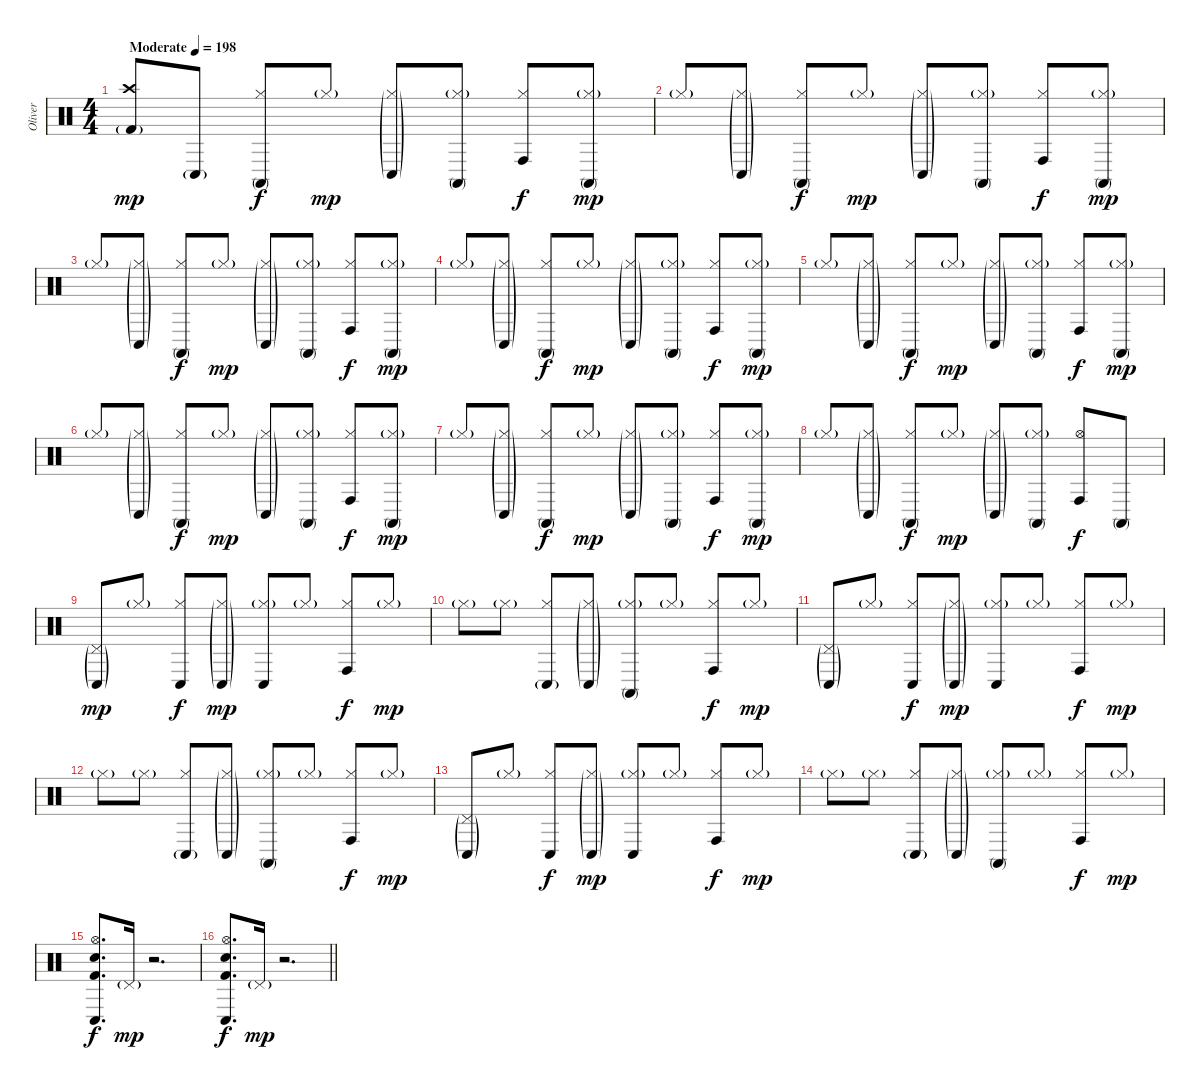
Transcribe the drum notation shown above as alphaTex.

\track ("Oliver" "Oliver") {instrument percussion}
\staff {score}
\articulation defaults
\ts (4 4)
\tempo (198 "Moderate")
\clef neutral
\ks c
("Crash high (hit)" "Kick (hit) 2"{g}).8{dy mp} "Conga low (hit)"{g}.8 ("Hi-Hat (closed)" "Conga high (mute)").8{dy f} "Hi-Hat (closed)"{g}.8{dy mp} ("Hi-Hat (closed)"{g} "Conga low (hit)"{g}).8 ("Hi-Hat (closed)"{g} "Conga high (mute)").8 ("Hi-Hat (closed)" "Conga high (hit)").8{dy f} ("Hi-Hat (closed)"{g} "Conga high (mute)").8{dy mp} |
"Hi-Hat (closed)"{g}.8 ("Hi-Hat (closed)"{g} "Conga low (hit)"{g}).8 ("Hi-Hat (closed)" "Conga high (mute)").8{dy f} "Hi-Hat (closed)"{g}.8{dy mp} ("Hi-Hat (closed)"{g} "Conga low (hit)"{g}).8 ("Hi-Hat (closed)"{g} "Conga high (mute)").8 ("Hi-Hat (closed)" "Conga high (hit)").8{dy f} ("Hi-Hat (closed)"{g} "Conga high (mute)").8{dy mp} |
"Hi-Hat (closed)"{g}.8 ("Hi-Hat (closed)"{g} "Conga low (hit)"{g}).8 ("Hi-Hat (closed)" "Conga high (mute)").8{dy f} "Hi-Hat (closed)"{g}.8{dy mp} ("Hi-Hat (closed)"{g} "Conga low (hit)"{g}).8 ("Hi-Hat (closed)"{g} "Conga high (mute)").8 ("Hi-Hat (closed)" "Conga high (hit)").8{dy f} ("Hi-Hat (closed)"{g} "Conga high (mute)").8{dy mp} |
"Hi-Hat (closed)"{g}.8 ("Hi-Hat (closed)"{g} "Conga low (hit)"{g}).8 ("Hi-Hat (closed)" "Conga high (mute)").8{dy f} "Hi-Hat (closed)"{g}.8{dy mp} ("Hi-Hat (closed)"{g} "Conga low (hit)"{g}).8 ("Hi-Hat (closed)"{g} "Conga high (mute)").8 ("Hi-Hat (closed)" "Conga high (hit)").8{dy f} ("Hi-Hat (closed)"{g} "Conga high (mute)").8{dy mp} |
"Hi-Hat (closed)"{g}.8 ("Hi-Hat (closed)"{g} "Conga low (hit)"{g}).8 ("Hi-Hat (closed)" "Conga high (mute)").8{dy f} "Hi-Hat (closed)"{g}.8{dy mp} ("Hi-Hat (closed)"{g} "Conga low (hit)"{g}).8 ("Hi-Hat (closed)"{g} "Conga high (mute)").8 ("Hi-Hat (closed)" "Conga high (hit)").8{dy f} ("Hi-Hat (closed)"{g} "Conga high (mute)").8{dy mp} |
"Hi-Hat (closed)"{g}.8 ("Hi-Hat (closed)"{g} "Conga low (hit)"{g}).8 ("Hi-Hat (closed)" "Conga high (mute)").8{dy f} "Hi-Hat (closed)"{g}.8{dy mp} ("Hi-Hat (closed)"{g} "Conga low (hit)"{g}).8 ("Hi-Hat (closed)"{g} "Conga high (mute)").8 ("Hi-Hat (closed)" "Conga high (hit)").8{dy f} ("Hi-Hat (closed)"{g} "Conga high (mute)").8{dy mp} |
"Hi-Hat (closed)"{g}.8 ("Hi-Hat (closed)"{g} "Conga low (hit)"{g}).8 ("Hi-Hat (closed)" "Conga high (mute)").8{dy f} "Hi-Hat (closed)"{g}.8{dy mp} ("Hi-Hat (closed)"{g} "Conga low (hit)"{g}).8 ("Hi-Hat (closed)"{g} "Conga high (mute)").8 ("Hi-Hat (closed)" "Conga high (hit)").8{dy f} ("Hi-Hat (closed)"{g} "Conga high (mute)").8{dy mp} |
"Hi-Hat (closed)"{g}.8 ("Hi-Hat (closed)"{g} "Conga low (hit)"{g}).8 ("Hi-Hat (closed)" "Conga high (mute)").8{dy f} "Hi-Hat (closed)"{g}.8{dy mp} ("Hi-Hat (closed)"{g} "Conga low (hit)"{g}).8 ("Hi-Hat (closed)"{g} "Conga high (mute)").8 ("Hi-Hat (open)" "Conga high (hit)").8{dy f} "Conga high (mute)".8 |
("Pedal Hi-Hat (hit)"{g} "Conga low (hit)"{g}).8{dy mp} "Hi-Hat (closed)"{g}.8 ("Hi-Hat (closed)" "Conga low (hit)").8{dy f} ("Hi-Hat (closed)"{g} "Conga low (hit)"{g}).8{dy mp} ("Hi-Hat (closed)"{g} "Conga low (hit)").8 "Hi-Hat (closed)"{g}.8 ("Hi-Hat (closed)" "Conga high (hit)").8{dy f} "Hi-Hat (closed)"{g}.8{dy mp} |
"Hi-Hat (closed)"{g}.8 "Hi-Hat (closed)"{g}.8 ("Hi-Hat (closed)" "Conga low (hit)"{g}).8 ("Hi-Hat (closed)"{g} "Conga low (hit)"{g}).8 ("Hi-Hat (closed)"{g} "Conga high (mute)").8 "Hi-Hat (closed)"{g}.8 ("Hi-Hat (closed)" "Conga high (hit)").8{dy f} "Hi-Hat (closed)"{g}.8{dy mp} |
("Pedal Hi-Hat (hit)"{g} "Conga low (hit)"{g}).8 "Hi-Hat (closed)"{g}.8 ("Hi-Hat (closed)" "Conga low (hit)").8{dy f} ("Hi-Hat (closed)"{g} "Conga low (hit)"{g}).8{dy mp} ("Hi-Hat (closed)"{g} "Conga low (hit)").8 "Hi-Hat (closed)"{g}.8 ("Hi-Hat (closed)" "Conga high (hit)").8{dy f} "Hi-Hat (closed)"{g}.8{dy mp} |
"Hi-Hat (closed)"{g}.8 "Hi-Hat (closed)"{g}.8 ("Hi-Hat (closed)" "Conga low (hit)"{g}).8 ("Hi-Hat (closed)"{g} "Conga low (hit)"{g}).8 ("Hi-Hat (closed)"{g} "Conga high (mute)").8 "Hi-Hat (closed)"{g}.8 ("Hi-Hat (closed)" "Conga high (hit)").8{dy f} "Hi-Hat (closed)"{g}.8{dy mp} |
("Pedal Hi-Hat (hit)"{g} "Conga low (hit)"{g}).8 "Hi-Hat (closed)"{g}.8 ("Hi-Hat (closed)" "Conga low (hit)").8{dy f} ("Hi-Hat (closed)"{g} "Conga low (hit)"{g}).8{dy mp} ("Hi-Hat (closed)"{g} "Conga low (hit)").8 "Hi-Hat (closed)"{g}.8 ("Hi-Hat (closed)" "Conga high (hit)").8{dy f} "Hi-Hat (closed)"{g}.8{dy mp} |
"Hi-Hat (closed)"{g}.8 "Hi-Hat (closed)"{g}.8 ("Hi-Hat (closed)" "Conga low (hit)"{g}).8 ("Hi-Hat (closed)"{g} "Conga low (hit)"{g}).8 ("Hi-Hat (closed)"{g} "Conga high (mute)").8 "Hi-Hat (closed)"{g}.8 ("Hi-Hat (closed)" "Conga high (hit)").8{dy f} "Hi-Hat (closed)"{g}.8{dy mp} |
("Hi-Hat (open)" "Conga low (hit)" "Electric Snare (hit)" "Kick (hit) 2").8{d dy f} "Pedal Hi-Hat (hit)"{g}.16{dy mp} r.2{d} |
\barLineRight lightlight
("Hi-Hat (open)" "Conga low (hit)" "Electric Snare (hit)" "Kick (hit) 2").8{d dy f} "Pedal Hi-Hat (hit)"{g}.16{dy mp} r.2{d}
